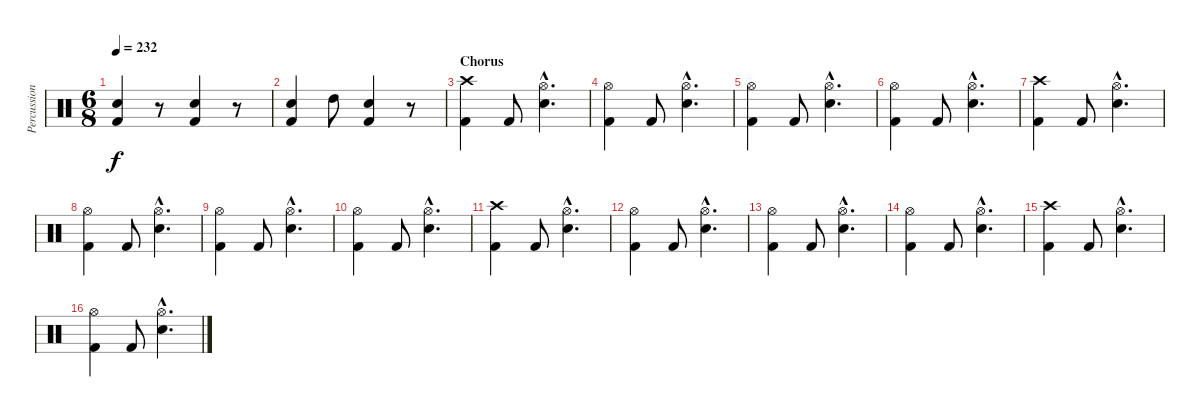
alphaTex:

\track ("Percussion" "Percussion") {instrument percussion}
\staff {score}
\articulation defaults
\ts (6 8)
\tempo 232
\clef neutral
\ks c
("Electric Snare (hit)" "Kick (hit) 2").4{dy f} r.8 ("Electric Snare (hit)" "Kick (hit) 2").4 r.8 |
("Electric Snare (hit)" "Kick (hit) 2").4 "High Tom (hit)".8 ("Electric Snare (hit)" "Kick (hit) 2").4 r.8 |
\section ("" "Chorus")
("Crash high (hit)" "Kick (hit) 2").4 "Kick (hit) 2".8 ("Hi-Hat (open)"{hac} "Electric Snare (hit)"{hac}).4{d} |
("Hi-Hat (open)" "Kick (hit) 2").4 "Kick (hit) 2".8 ("Hi-Hat (open)"{hac} "Electric Snare (hit)"{hac}).4{d} |
("Hi-Hat (open)" "Kick (hit) 2").4 "Kick (hit) 2".8 ("Hi-Hat (open)"{hac} "Electric Snare (hit)"{hac}).4{d} |
("Hi-Hat (open)" "Kick (hit) 2").4 "Kick (hit) 2".8 ("Hi-Hat (open)"{hac} "Electric Snare (hit)"{hac}).4{d} |
("Crash high (hit)" "Kick (hit) 2").4 "Kick (hit) 2".8 ("Hi-Hat (open)"{hac} "Electric Snare (hit)"{hac}).4{d} |
("Hi-Hat (open)" "Kick (hit) 2").4 "Kick (hit) 2".8 ("Hi-Hat (open)"{hac} "Electric Snare (hit)"{hac}).4{d} |
("Hi-Hat (open)" "Kick (hit) 2").4 "Kick (hit) 2".8 ("Hi-Hat (open)"{hac} "Electric Snare (hit)"{hac}).4{d} |
("Hi-Hat (open)" "Kick (hit) 2").4 "Kick (hit) 2".8 ("Hi-Hat (open)"{hac} "Electric Snare (hit)"{hac}).4{d} |
("Crash high (hit)" "Kick (hit) 2").4 "Kick (hit) 2".8 ("Hi-Hat (open)"{hac} "Electric Snare (hit)"{hac}).4{d} |
("Hi-Hat (open)" "Kick (hit) 2").4 "Kick (hit) 2".8 ("Hi-Hat (open)"{hac} "Electric Snare (hit)"{hac}).4{d} |
("Hi-Hat (open)" "Kick (hit) 2").4 "Kick (hit) 2".8 ("Hi-Hat (open)"{hac} "Electric Snare (hit)"{hac}).4{d} |
("Hi-Hat (open)" "Kick (hit) 2").4 "Kick (hit) 2".8 ("Hi-Hat (open)"{hac} "Electric Snare (hit)"{hac}).4{d} |
("Crash high (hit)" "Kick (hit) 2").4 "Kick (hit) 2".8 ("Hi-Hat (open)"{hac} "Electric Snare (hit)"{hac}).4{d} |
("Hi-Hat (open)" "Kick (hit) 2").4 "Kick (hit) 2".8 ("Hi-Hat (open)"{hac} "Electric Snare (hit)"{hac}).4{d}
